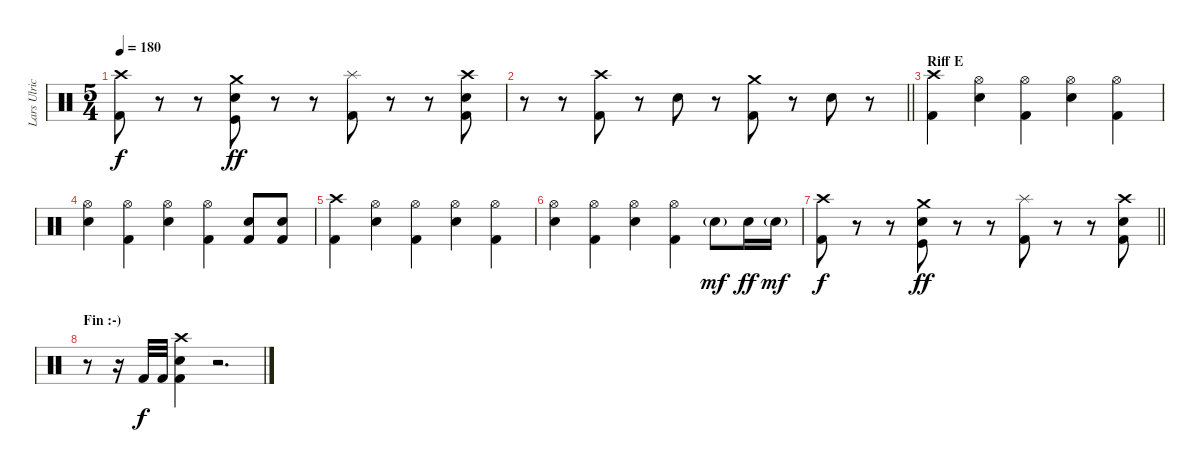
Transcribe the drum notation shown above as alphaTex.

\track ("Lars Ulrich" "Lars Ulric") {instrument percussion}
\staff {score}
\articulation defaults
\ts (5 4)
\tempo 180
\clef neutral
\ks c
("Crash high (hit)" "Kick (hit) 2").8{dy f} r.8 r.8 ("Crash medium (hit)" "Electric Snare (hit)" "Kick (hit)").8{dy ff} r.8 r.8 ("Splash (hit)" "Kick (hit) 2").8 r.8 r.8 ("Crash high (hit)" "Electric Snare (hit)" "Kick (hit) 2").8 |
\barLineRight lightlight
r.8 r.8 ("Crash high (hit)" "Kick (hit) 2").8 r.8 "Electric Snare (hit)".8 r.8 ("Crash medium (hit)" "Kick (hit) 2").8 r.8 "Electric Snare (hit)".8 r.8 |
\section ("" "Riff E")
("Crash high (hit)" "Kick (hit) 2").4 ("Hi-Hat (open)" "Electric Snare (hit)").4 ("Hi-Hat (open)" "Kick (hit) 2").4 ("Hi-Hat (open)" "Electric Snare (hit)").4 ("Hi-Hat (open)" "Kick (hit) 2").4 |
("Hi-Hat (open)" "Electric Snare (hit)").4 ("Hi-Hat (open)" "Kick (hit) 2").4 ("Hi-Hat (open)" "Electric Snare (hit)").4 ("Hi-Hat (open)" "Kick (hit) 2").4 ("Electric Snare (hit)" "Kick (hit) 2").8 ("Electric Snare (hit)" "Kick (hit) 2").8 |
("Crash high (hit)" "Kick (hit) 2").4 ("Hi-Hat (open)" "Electric Snare (hit)").4 ("Hi-Hat (open)" "Kick (hit) 2").4 ("Hi-Hat (open)" "Electric Snare (hit)").4 ("Hi-Hat (open)" "Kick (hit) 2").4 |
("Hi-Hat (open)" "Electric Snare (hit)").4 ("Hi-Hat (open)" "Kick (hit) 2").4 ("Hi-Hat (open)" "Electric Snare (hit)").4 ("Hi-Hat (open)" "Kick (hit) 2").4 "Electric Snare (hit)"{g}.8{dy mf} "Electric Snare (hit)".16{dy ff} "Electric Snare (hit)"{g}.16{dy mf} |
\barLineRight lightlight
("Crash high (hit)" "Kick (hit) 2").8{dy f} r.8 r.8 ("Crash medium (hit)" "Electric Snare (hit)" "Kick (hit)").8{dy ff} r.8 r.8 ("Splash (hit)" "Kick (hit) 2").8 r.8 r.8 ("Crash high (hit)" "Electric Snare (hit)" "Kick (hit) 2").8 |
\section ("" "Fin :-)")
r.8 r.16 "Kick (hit) 2".32{dy f} "Kick (hit) 2".32 ("Crash high (hit)" "Electric Snare (hit)" "Kick (hit) 2").4 r.2{d}
